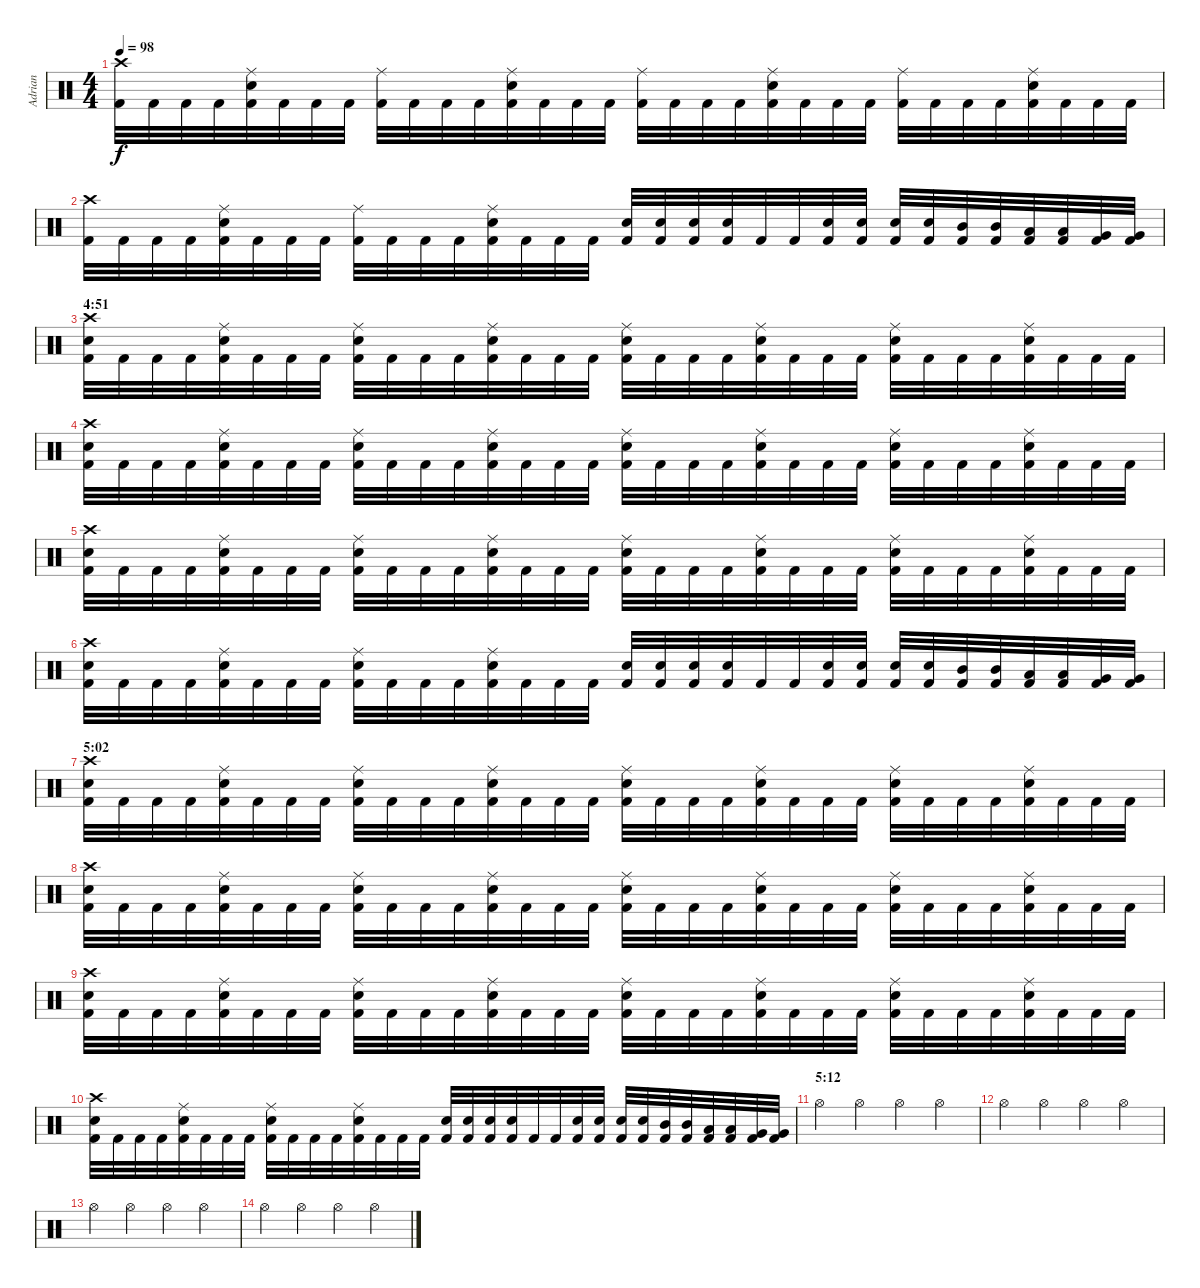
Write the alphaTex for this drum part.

\track ("Adrian" "Adrian") {instrument percussion}
\staff {score}
\articulation defaults
\ts (4 4)
\tempo 98
\clef neutral
\ks c
("Kick (hit) 2" "Crash high (hit)").32{dy f} "Kick (hit) 2".32 "Kick (hit) 2".32 "Kick (hit) 2".32 ("Kick (hit) 2" "Snare (hit) 2" "Ride (middle)").32 "Kick (hit) 2".32 "Kick (hit) 2".32 "Kick (hit) 2".32 ("Kick (hit) 2" "Ride (middle)").32 "Kick (hit) 2".32 "Kick (hit) 2".32 "Kick (hit) 2".32 ("Kick (hit) 2" "Snare (hit) 2" "Ride (middle)").32 "Kick (hit) 2".32 "Kick (hit) 2".32 "Kick (hit) 2".32 ("Kick (hit) 2" "Ride (middle)").32 "Kick (hit) 2".32 "Kick (hit) 2".32 "Kick (hit) 2".32 ("Kick (hit) 2" "Snare (hit) 2" "Ride (middle)").32 "Kick (hit) 2".32 "Kick (hit) 2".32 "Kick (hit) 2".32 ("Kick (hit) 2" "Ride (middle)").32 "Kick (hit) 2".32 "Kick (hit) 2".32 "Kick (hit) 2".32 ("Kick (hit) 2" "Snare (hit) 2" "Ride (middle)").32 "Kick (hit) 2".32 "Kick (hit) 2".32 "Kick (hit) 2".32 |
("Kick (hit) 2" "Crash high (hit)").32 "Kick (hit) 2".32 "Kick (hit) 2".32 "Kick (hit) 2".32 ("Kick (hit) 2" "Snare (hit) 2" "Ride (middle)").32 "Kick (hit) 2".32 "Kick (hit) 2".32 "Kick (hit) 2".32 ("Kick (hit) 2" "Ride (middle)").32 "Kick (hit) 2".32 "Kick (hit) 2".32 "Kick (hit) 2".32 ("Kick (hit) 2" "Snare (hit) 2" "Ride (middle)").32 "Kick (hit) 2".32 "Kick (hit) 2".32 "Kick (hit) 2".32 ("Kick (hit) 2" "Snare (hit) 2").32 ("Kick (hit) 2" "Snare (hit) 2").32 ("Kick (hit) 2" "Snare (hit) 2").32 ("Kick (hit) 2" "Snare (hit) 2").32 "Kick (hit) 2".32 "Kick (hit) 2".32 ("Kick (hit) 2" "Snare (hit) 2").32 ("Kick (hit) 2" "Snare (hit) 2").32 ("Kick (hit) 2" "Snare (hit) 2").32 ("Kick (hit) 2" "Snare (hit) 2").32 ("Kick (hit) 2" "Mid Tom (hit)").32 ("Kick (hit) 2" "Mid Tom (hit)").32 ("Kick (hit) 2" "Low Tom (hit)").32 ("Kick (hit) 2" "Low Tom (hit)").32 ("Kick (hit) 2" "Very Low Tom (hit)").32 ("Kick (hit) 2" "Very Low Tom (hit)").32 |
\section ("" "4:51")
("Kick (hit) 2" "Snare (hit) 2" "Crash high (hit)").32 "Kick (hit) 2".32 "Kick (hit) 2".32 "Kick (hit) 2".32 ("Kick (hit) 2" "Snare (hit) 2" "Ride (middle)").32 "Kick (hit) 2".32 "Kick (hit) 2".32 "Kick (hit) 2".32 ("Kick (hit) 2" "Snare (hit) 2" "Ride (middle)").32 "Kick (hit) 2".32 "Kick (hit) 2".32 "Kick (hit) 2".32 ("Kick (hit) 2" "Snare (hit) 2" "Ride (middle)").32 "Kick (hit) 2".32 "Kick (hit) 2".32 "Kick (hit) 2".32 ("Kick (hit) 2" "Snare (hit) 2" "Ride (middle)").32 "Kick (hit) 2".32 "Kick (hit) 2".32 "Kick (hit) 2".32 ("Kick (hit) 2" "Snare (hit) 2" "Ride (middle)").32 "Kick (hit) 2".32 "Kick (hit) 2".32 "Kick (hit) 2".32 ("Kick (hit) 2" "Snare (hit) 2" "Ride (middle)").32 "Kick (hit) 2".32 "Kick (hit) 2".32 "Kick (hit) 2".32 ("Kick (hit) 2" "Snare (hit) 2" "Ride (middle)").32 "Kick (hit) 2".32 "Kick (hit) 2".32 "Kick (hit) 2".32 |
("Kick (hit) 2" "Snare (hit) 2" "Crash high (hit)").32 "Kick (hit) 2".32 "Kick (hit) 2".32 "Kick (hit) 2".32 ("Kick (hit) 2" "Snare (hit) 2" "Ride (middle)").32 "Kick (hit) 2".32 "Kick (hit) 2".32 "Kick (hit) 2".32 ("Kick (hit) 2" "Snare (hit) 2" "Ride (middle)").32 "Kick (hit) 2".32 "Kick (hit) 2".32 "Kick (hit) 2".32 ("Kick (hit) 2" "Snare (hit) 2" "Ride (middle)").32 "Kick (hit) 2".32 "Kick (hit) 2".32 "Kick (hit) 2".32 ("Kick (hit) 2" "Snare (hit) 2" "Ride (middle)").32 "Kick (hit) 2".32 "Kick (hit) 2".32 "Kick (hit) 2".32 ("Kick (hit) 2" "Snare (hit) 2" "Ride (middle)").32 "Kick (hit) 2".32 "Kick (hit) 2".32 "Kick (hit) 2".32 ("Kick (hit) 2" "Snare (hit) 2" "Ride (middle)").32 "Kick (hit) 2".32 "Kick (hit) 2".32 "Kick (hit) 2".32 ("Kick (hit) 2" "Snare (hit) 2" "Ride (middle)").32 "Kick (hit) 2".32 "Kick (hit) 2".32 "Kick (hit) 2".32 |
("Kick (hit) 2" "Snare (hit) 2" "Crash high (hit)").32 "Kick (hit) 2".32 "Kick (hit) 2".32 "Kick (hit) 2".32 ("Kick (hit) 2" "Snare (hit) 2" "Ride (middle)").32 "Kick (hit) 2".32 "Kick (hit) 2".32 "Kick (hit) 2".32 ("Kick (hit) 2" "Snare (hit) 2" "Ride (middle)").32 "Kick (hit) 2".32 "Kick (hit) 2".32 "Kick (hit) 2".32 ("Kick (hit) 2" "Snare (hit) 2" "Ride (middle)").32 "Kick (hit) 2".32 "Kick (hit) 2".32 "Kick (hit) 2".32 ("Kick (hit) 2" "Snare (hit) 2" "Ride (middle)").32 "Kick (hit) 2".32 "Kick (hit) 2".32 "Kick (hit) 2".32 ("Kick (hit) 2" "Snare (hit) 2" "Ride (middle)").32 "Kick (hit) 2".32 "Kick (hit) 2".32 "Kick (hit) 2".32 ("Kick (hit) 2" "Snare (hit) 2" "Ride (middle)").32 "Kick (hit) 2".32 "Kick (hit) 2".32 "Kick (hit) 2".32 ("Kick (hit) 2" "Snare (hit) 2" "Ride (middle)").32 "Kick (hit) 2".32 "Kick (hit) 2".32 "Kick (hit) 2".32 |
("Kick (hit) 2" "Snare (hit) 2" "Crash high (hit)").32 "Kick (hit) 2".32 "Kick (hit) 2".32 "Kick (hit) 2".32 ("Kick (hit) 2" "Snare (hit) 2" "Ride (middle)").32 "Kick (hit) 2".32 "Kick (hit) 2".32 "Kick (hit) 2".32 ("Kick (hit) 2" "Snare (hit) 2" "Ride (middle)").32 "Kick (hit) 2".32 "Kick (hit) 2".32 "Kick (hit) 2".32 ("Kick (hit) 2" "Snare (hit) 2" "Ride (middle)").32 "Kick (hit) 2".32 "Kick (hit) 2".32 "Kick (hit) 2".32 ("Kick (hit) 2" "Snare (hit) 2").32 ("Kick (hit) 2" "Snare (hit) 2").32 ("Kick (hit) 2" "Snare (hit) 2").32 ("Kick (hit) 2" "Snare (hit) 2").32 "Kick (hit) 2".32 "Kick (hit) 2".32 ("Kick (hit) 2" "Snare (hit) 2").32 ("Kick (hit) 2" "Snare (hit) 2").32 ("Kick (hit) 2" "Snare (hit) 2").32 ("Kick (hit) 2" "Snare (hit) 2").32 ("Kick (hit) 2" "Mid Tom (hit)").32 ("Kick (hit) 2" "Mid Tom (hit)").32 ("Kick (hit) 2" "Low Tom (hit)").32 ("Kick (hit) 2" "Low Tom (hit)").32 ("Kick (hit) 2" "Very Low Tom (hit)").32 ("Kick (hit) 2" "Very Low Tom (hit)").32 |
\section ("" "5:02")
("Kick (hit) 2" "Snare (hit) 2" "Crash high (hit)").32 "Kick (hit) 2".32 "Kick (hit) 2".32 "Kick (hit) 2".32 ("Kick (hit) 2" "Snare (hit) 2" "Ride (middle)").32 "Kick (hit) 2".32 "Kick (hit) 2".32 "Kick (hit) 2".32 ("Kick (hit) 2" "Snare (hit) 2" "Ride (middle)").32 "Kick (hit) 2".32 "Kick (hit) 2".32 "Kick (hit) 2".32 ("Kick (hit) 2" "Snare (hit) 2" "Ride (middle)").32 "Kick (hit) 2".32 "Kick (hit) 2".32 "Kick (hit) 2".32 ("Kick (hit) 2" "Snare (hit) 2" "Ride (middle)").32 "Kick (hit) 2".32 "Kick (hit) 2".32 "Kick (hit) 2".32 ("Kick (hit) 2" "Snare (hit) 2" "Ride (middle)").32 "Kick (hit) 2".32 "Kick (hit) 2".32 "Kick (hit) 2".32 ("Kick (hit) 2" "Snare (hit) 2" "Ride (middle)").32 "Kick (hit) 2".32 "Kick (hit) 2".32 "Kick (hit) 2".32 ("Kick (hit) 2" "Snare (hit) 2" "Ride (middle)").32 "Kick (hit) 2".32 "Kick (hit) 2".32 "Kick (hit) 2".32 |
("Kick (hit) 2" "Snare (hit) 2" "Crash high (hit)").32 "Kick (hit) 2".32 "Kick (hit) 2".32 "Kick (hit) 2".32 ("Kick (hit) 2" "Snare (hit) 2" "Ride (middle)").32 "Kick (hit) 2".32 "Kick (hit) 2".32 "Kick (hit) 2".32 ("Kick (hit) 2" "Snare (hit) 2" "Ride (middle)").32 "Kick (hit) 2".32 "Kick (hit) 2".32 "Kick (hit) 2".32 ("Kick (hit) 2" "Snare (hit) 2" "Ride (middle)").32 "Kick (hit) 2".32 "Kick (hit) 2".32 "Kick (hit) 2".32 ("Kick (hit) 2" "Snare (hit) 2" "Ride (middle)").32 "Kick (hit) 2".32 "Kick (hit) 2".32 "Kick (hit) 2".32 ("Kick (hit) 2" "Snare (hit) 2" "Ride (middle)").32 "Kick (hit) 2".32 "Kick (hit) 2".32 "Kick (hit) 2".32 ("Kick (hit) 2" "Snare (hit) 2" "Ride (middle)").32 "Kick (hit) 2".32 "Kick (hit) 2".32 "Kick (hit) 2".32 ("Kick (hit) 2" "Snare (hit) 2" "Ride (middle)").32 "Kick (hit) 2".32 "Kick (hit) 2".32 "Kick (hit) 2".32 |
("Kick (hit) 2" "Snare (hit) 2" "Crash high (hit)").32 "Kick (hit) 2".32 "Kick (hit) 2".32 "Kick (hit) 2".32 ("Kick (hit) 2" "Snare (hit) 2" "Ride (middle)").32 "Kick (hit) 2".32 "Kick (hit) 2".32 "Kick (hit) 2".32 ("Kick (hit) 2" "Snare (hit) 2" "Ride (middle)").32 "Kick (hit) 2".32 "Kick (hit) 2".32 "Kick (hit) 2".32 ("Kick (hit) 2" "Snare (hit) 2" "Ride (middle)").32 "Kick (hit) 2".32 "Kick (hit) 2".32 "Kick (hit) 2".32 ("Kick (hit) 2" "Snare (hit) 2" "Ride (middle)").32 "Kick (hit) 2".32 "Kick (hit) 2".32 "Kick (hit) 2".32 ("Kick (hit) 2" "Snare (hit) 2" "Ride (middle)").32 "Kick (hit) 2".32 "Kick (hit) 2".32 "Kick (hit) 2".32 ("Kick (hit) 2" "Snare (hit) 2" "Ride (middle)").32 "Kick (hit) 2".32 "Kick (hit) 2".32 "Kick (hit) 2".32 ("Kick (hit) 2" "Snare (hit) 2" "Ride (middle)").32 "Kick (hit) 2".32 "Kick (hit) 2".32 "Kick (hit) 2".32 |
("Kick (hit) 2" "Snare (hit) 2" "Crash high (hit)").32 "Kick (hit) 2".32 "Kick (hit) 2".32 "Kick (hit) 2".32 ("Kick (hit) 2" "Snare (hit) 2" "Ride (middle)").32 "Kick (hit) 2".32 "Kick (hit) 2".32 "Kick (hit) 2".32 ("Kick (hit) 2" "Snare (hit) 2" "Ride (middle)").32 "Kick (hit) 2".32 "Kick (hit) 2".32 "Kick (hit) 2".32 ("Kick (hit) 2" "Snare (hit) 2" "Ride (middle)").32 "Kick (hit) 2".32 "Kick (hit) 2".32 "Kick (hit) 2".32 ("Kick (hit) 2" "Snare (hit) 2").32 ("Kick (hit) 2" "Snare (hit) 2").32 ("Kick (hit) 2" "Snare (hit) 2").32 ("Kick (hit) 2" "Snare (hit) 2").32 "Kick (hit) 2".32 "Kick (hit) 2".32 ("Kick (hit) 2" "Snare (hit) 2").32 ("Kick (hit) 2" "Snare (hit) 2").32 ("Kick (hit) 2" "Snare (hit) 2").32 ("Kick (hit) 2" "Snare (hit) 2").32 ("Kick (hit) 2" "Mid Tom (hit)").32 ("Kick (hit) 2" "Mid Tom (hit)").32 ("Kick (hit) 2" "Low Tom (hit)").32 ("Kick (hit) 2" "Low Tom (hit)").32 ("Kick (hit) 2" "Very Low Tom (hit)").32 ("Kick (hit) 2" "Very Low Tom (hit)").32 |
\section ("" "5:12")
"Hi-Hat (open)".4 "Hi-Hat (open)".4 "Hi-Hat (open)".4 "Hi-Hat (open)".4 |
"Hi-Hat (open)".4 "Hi-Hat (open)".4 "Hi-Hat (open)".4 "Hi-Hat (open)".4 |
"Hi-Hat (open)".4 "Hi-Hat (open)".4 "Hi-Hat (open)".4 "Hi-Hat (open)".4 |
"Hi-Hat (open)".4 "Hi-Hat (open)".4 "Hi-Hat (open)".4 "Hi-Hat (open)".4
